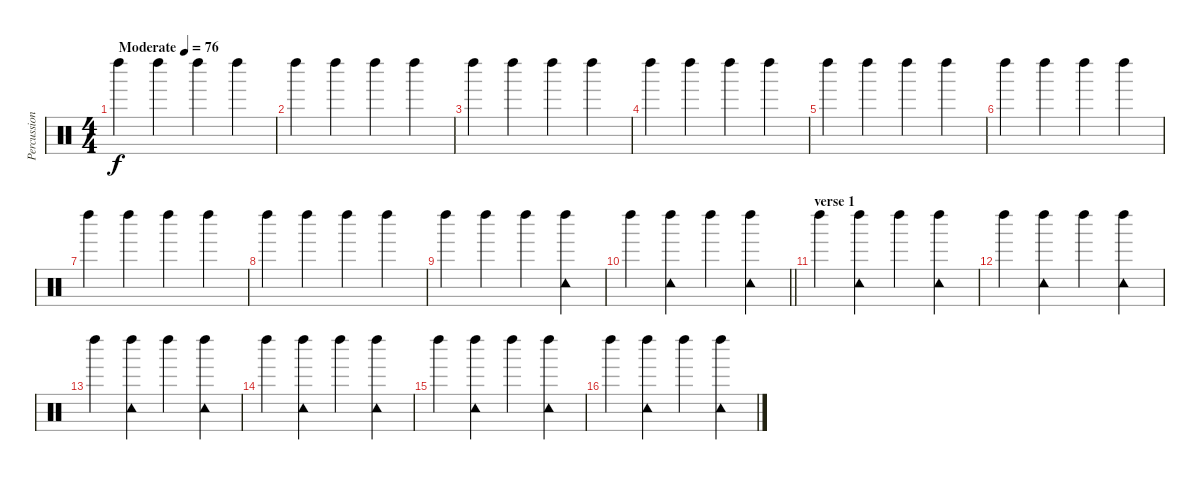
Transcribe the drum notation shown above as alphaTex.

\track ("Percussioni" "Percussion") {instrument percussion}
\staff {score}
\articulation defaults
\ts (4 4)
\tempo (76 "Moderate")
\clef neutral
\ks c "Left Maraca (hit)".4{dy f} "Left Maraca (hit)".4 "Left Maraca (hit)".4 "Left Maraca (hit)".4
|
"Left Maraca (hit)".4 "Left Maraca (hit)".4 "Left Maraca (hit)".4 "Left Maraca (hit)".4 |
"Left Maraca (hit)".4 "Left Maraca (hit)".4 "Left Maraca (hit)".4 "Left Maraca (hit)".4 |
"Left Maraca (hit)".4 "Left Maraca (hit)".4 "Left Maraca (hit)".4 "Left Maraca (hit)".4 |
"Left Maraca (hit)".4 "Left Maraca (hit)".4 "Left Maraca (hit)".4 "Left Maraca (hit)".4 |
"Left Maraca (hit)".4 "Left Maraca (hit)".4 "Left Maraca (hit)".4 "Left Maraca (hit)".4 |
"Left Maraca (hit)".4 "Left Maraca (hit)".4 "Left Maraca (hit)".4 "Left Maraca (hit)".4 |
"Left Maraca (hit)".4 "Left Maraca (hit)".4 "Left Maraca (hit)".4 "Left Maraca (hit)".4 |
"Left Maraca (hit)".4 "Left Maraca (hit)".4 "Left Maraca (hit)".4 ("Left Maraca (hit)" "Tambourine (hit)").4 |
\barLineRight lightlight "Left Maraca (hit)".4
("Left Maraca (hit)" "Tambourine (hit)").4 "Left Maraca (hit)".4 ("Left Maraca (hit)" "Tambourine (hit)").4 |
\section ("" "verse 1")
"Left Maraca (hit)".4 ("Left Maraca (hit)" "Tambourine (hit)").4 "Left Maraca (hit)".4 ("Left Maraca (hit)" "Tambourine (hit)").4 |
"Left Maraca (hit)".4 ("Left Maraca (hit)" "Tambourine (hit)").4 "Left Maraca (hit)".4 ("Left Maraca (hit)" "Tambourine (hit)").4 |
"Left Maraca (hit)".4 ("Left Maraca (hit)" "Tambourine (hit)").4 "Left Maraca (hit)".4 ("Left Maraca (hit)" "Tambourine (hit)").4 |
"Left Maraca (hit)".4 ("Left Maraca (hit)" "Tambourine (hit)").4 "Left Maraca (hit)".4 ("Left Maraca (hit)" "Tambourine (hit)").4 |
"Left Maraca (hit)".4 ("Left Maraca (hit)" "Tambourine (hit)").4 "Left Maraca (hit)".4 ("Left Maraca (hit)" "Tambourine (hit)").4 |
"Left Maraca (hit)".4 ("Left Maraca (hit)" "Tambourine (hit)").4 "Left Maraca (hit)".4 ("Left Maraca (hit)" "Tambourine (hit)").4
